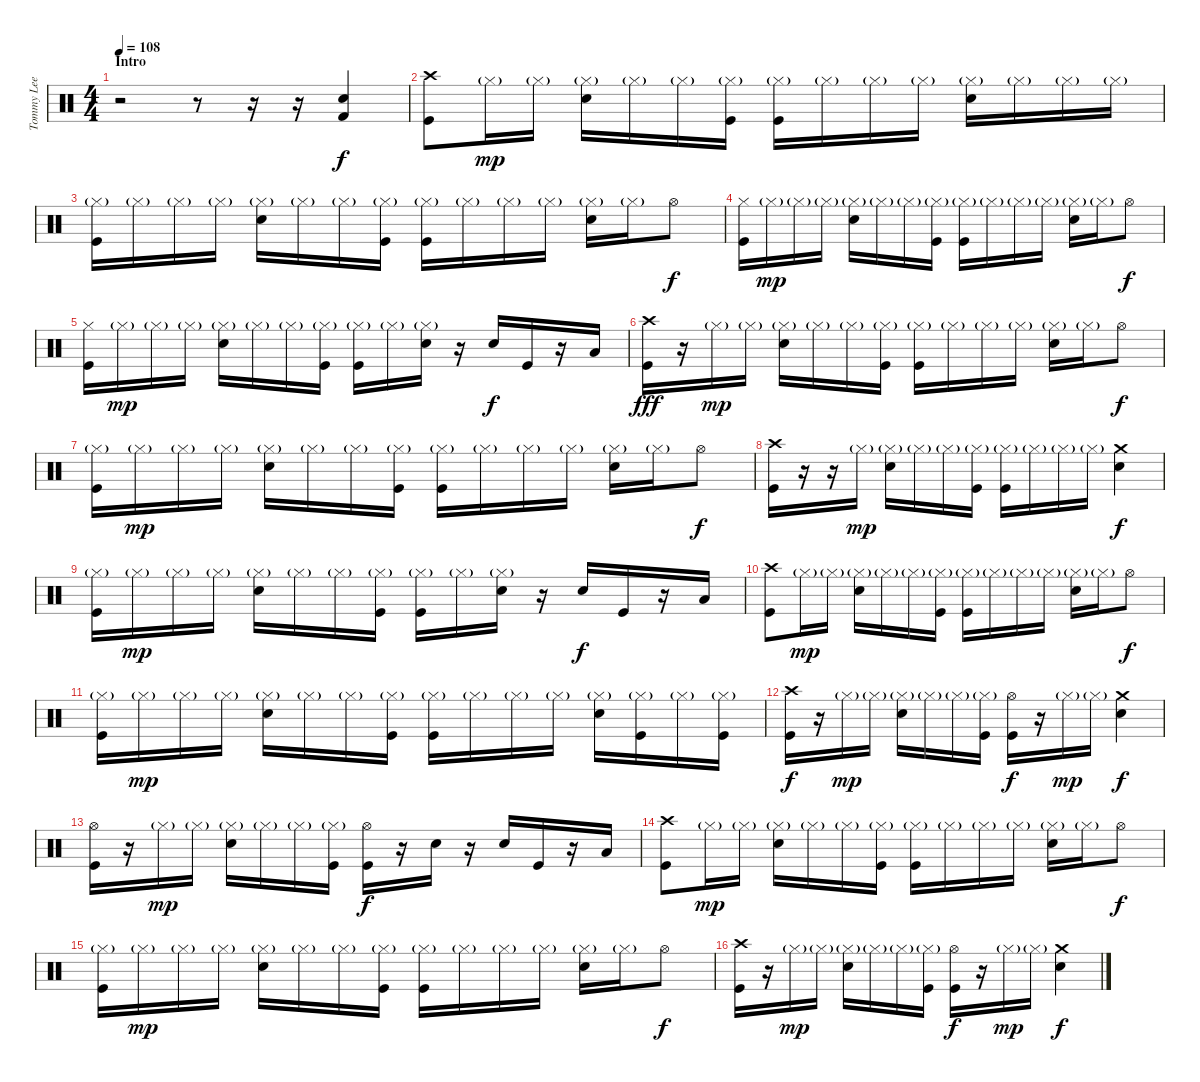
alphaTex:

\track ("Tommy Lee" "Tommy Lee") {instrument percussion}
\staff {score}
\articulation defaults
\ts (4 4)
\section ("" "Intro")
\tempo 108
\clef neutral
\ks c
r.2{dy f} r.8 r.16 r.16 ("Snare (hit) 2" "Kick (hit) 2").4 |
("Crash high (hit)" "Kick (hit)").8 "Hi-Hat (closed)"{g}.16{dy mp} "Hi-Hat (closed)"{g}.16 ("Hi-Hat (closed)"{g} "Snare (hit) 2").16 "Hi-Hat (closed)"{g}.16 "Hi-Hat (closed)"{g}.16 ("Hi-Hat (closed)"{g} "Kick (hit)").16 ("Hi-Hat (closed)"{g} "Kick (hit)").16 "Hi-Hat (closed)"{g}.16 "Hi-Hat (closed)"{g}.16 "Hi-Hat (closed)"{g}.16 ("Hi-Hat (closed)"{g} "Snare (hit) 2").16 "Hi-Hat (closed)"{g}.16 "Hi-Hat (closed)"{g}.16 "Hi-Hat (closed)"{g}.16 |
("Hi-Hat (closed)"{g} "Kick (hit)").16 "Hi-Hat (closed)"{g}.16 "Hi-Hat (closed)"{g}.16 "Hi-Hat (closed)"{g}.16 ("Hi-Hat (closed)"{g} "Snare (hit) 2").16 "Hi-Hat (closed)"{g}.16 "Hi-Hat (closed)"{g}.16 ("Hi-Hat (closed)"{g} "Kick (hit)").16 ("Hi-Hat (closed)"{g} "Kick (hit)").16 "Hi-Hat (closed)"{g}.16 "Hi-Hat (closed)"{g}.16 "Hi-Hat (closed)"{g}.16 ("Hi-Hat (closed)"{g} "Snare (hit) 2").16 "Hi-Hat (closed)"{g}.16 "Hi-Hat (open)".8{dy f} |
("Hi-Hat (closed)" "Kick (hit)").16 "Hi-Hat (closed)"{g}.16{dy mp} "Hi-Hat (closed)"{g}.16 "Hi-Hat (closed)"{g}.16 ("Hi-Hat (closed)"{g} "Snare (hit) 2").16 "Hi-Hat (closed)"{g}.16 "Hi-Hat (closed)"{g}.16 ("Hi-Hat (closed)"{g} "Kick (hit)").16 ("Hi-Hat (closed)"{g} "Kick (hit)").16 "Hi-Hat (closed)"{g}.16 "Hi-Hat (closed)"{g}.16 "Hi-Hat (closed)"{g}.16 ("Hi-Hat (closed)"{g} "Snare (hit) 2").16 "Hi-Hat (closed)"{g}.16 "Hi-Hat (open)".8{dy f} |
("Hi-Hat (closed)" "Kick (hit)").16 "Hi-Hat (closed)"{g}.16{dy mp} "Hi-Hat (closed)"{g}.16 "Hi-Hat (closed)"{g}.16 ("Hi-Hat (closed)"{g} "Snare (hit) 2").16 "Hi-Hat (closed)"{g}.16 "Hi-Hat (closed)"{g}.16 ("Hi-Hat (closed)"{g} "Kick (hit)").16 ("Hi-Hat (closed)"{g} "Kick (hit)").16 "Hi-Hat (closed)"{g}.16 ("Hi-Hat (closed)"{g} "Snare (hit) 2").16 r.16 "Snare (hit) 2".16{dy f} "Kick (hit)".16 r.16 "Low Tom (hit)".16 |
("Crash high (hit)" "Kick (hit)").16{dy fff} r.16 "Hi-Hat (closed)"{g}.16{dy mp} "Hi-Hat (closed)"{g}.16 ("Hi-Hat (closed)"{g} "Snare (hit) 2").16 "Hi-Hat (closed)"{g}.16 "Hi-Hat (closed)"{g}.16 ("Hi-Hat (closed)"{g} "Kick (hit)").16 ("Hi-Hat (closed)"{g} "Kick (hit)").16 "Hi-Hat (closed)"{g}.16 "Hi-Hat (closed)"{g}.16 "Hi-Hat (closed)"{g}.16 ("Hi-Hat (closed)"{g} "Snare (hit) 2").16 "Hi-Hat (closed)"{g}.16 "Hi-Hat (open)".8{dy f} |
("Hi-Hat (closed)"{g} "Kick (hit)").16 "Hi-Hat (closed)"{g}.16{dy mp} "Hi-Hat (closed)"{g}.16 "Hi-Hat (closed)"{g}.16 ("Hi-Hat (closed)"{g} "Snare (hit) 2").16 "Hi-Hat (closed)"{g}.16 "Hi-Hat (closed)"{g}.16 ("Hi-Hat (closed)"{g} "Kick (hit)").16 ("Hi-Hat (closed)"{g} "Kick (hit)").16 "Hi-Hat (closed)"{g}.16 "Hi-Hat (closed)"{g}.16 "Hi-Hat (closed)"{g}.16 ("Hi-Hat (closed)"{g} "Snare (hit) 2").16 "Hi-Hat (closed)"{g}.16 "Hi-Hat (open)".8{dy f} |
("Crash high (hit)" "Kick (hit)").16 r.16 r.16 "Hi-Hat (closed)"{g}.16{dy mp} ("Hi-Hat (closed)"{g} "Snare (hit) 2").16 "Hi-Hat (closed)"{g}.16 "Hi-Hat (closed)"{g}.16 ("Hi-Hat (closed)"{g} "Kick (hit)").16 ("Hi-Hat (closed)"{g} "Kick (hit)").16 "Hi-Hat (closed)"{g}.16 "Hi-Hat (closed)"{g}.16 "Hi-Hat (closed)"{g}.16 ("Crash medium (hit)" "Snare (hit) 2").4{dy f} |
("Hi-Hat (closed)"{g} "Kick (hit)").16 "Hi-Hat (closed)"{g}.16{dy mp} "Hi-Hat (closed)"{g}.16 "Hi-Hat (closed)"{g}.16 ("Hi-Hat (closed)"{g} "Snare (hit) 2").16 "Hi-Hat (closed)"{g}.16 "Hi-Hat (closed)"{g}.16 ("Hi-Hat (closed)"{g} "Kick (hit)").16 ("Hi-Hat (closed)"{g} "Kick (hit)").16 "Hi-Hat (closed)"{g}.16 ("Hi-Hat (closed)"{g} "Snare (hit) 2").16 r.16 "Snare (hit) 2".16{dy f} "Kick (hit)".16 r.16 "Low Tom (hit)".16 |
("Crash high (hit)" "Kick (hit)").8 "Hi-Hat (closed)"{g}.16{dy mp} "Hi-Hat (closed)"{g}.16 ("Hi-Hat (closed)"{g} "Snare (hit) 2").16 "Hi-Hat (closed)"{g}.16 "Hi-Hat (closed)"{g}.16 ("Hi-Hat (closed)"{g} "Kick (hit)").16 ("Hi-Hat (closed)"{g} "Kick (hit)").16 "Hi-Hat (closed)"{g}.16 "Hi-Hat (closed)"{g}.16 "Hi-Hat (closed)"{g}.16 ("Hi-Hat (closed)"{g} "Snare (hit) 2").16 "Hi-Hat (closed)"{g}.16 "Hi-Hat (open)".8{dy f} |
("Hi-Hat (closed)"{g} "Kick (hit)").16 "Hi-Hat (closed)"{g}.16{dy mp} "Hi-Hat (closed)"{g}.16 "Hi-Hat (closed)"{g}.16 ("Hi-Hat (closed)"{g} "Snare (hit) 2").16 "Hi-Hat (closed)"{g}.16 "Hi-Hat (closed)"{g}.16 ("Hi-Hat (closed)"{g} "Kick (hit)").16 ("Hi-Hat (closed)"{g} "Kick (hit)").16 "Hi-Hat (closed)"{g}.16 "Hi-Hat (closed)"{g}.16 "Hi-Hat (closed)"{g}.16 ("Hi-Hat (closed)"{g} "Snare (hit) 2").16 ("Hi-Hat (closed)"{g} "Kick (hit)").16 "Hi-Hat (closed)"{g}.16 ("Hi-Hat (closed)"{g} "Kick (hit)").16 |
("Crash high (hit)" "Kick (hit)").16{dy f} r.16 "Hi-Hat (closed)"{g}.16{dy mp} "Hi-Hat (closed)"{g}.16 ("Hi-Hat (closed)"{g} "Snare (hit) 2").16 "Hi-Hat (closed)"{g}.16 "Hi-Hat (closed)"{g}.16 ("Hi-Hat (closed)"{g} "Kick (hit)").16 ("Hi-Hat (open)" "Kick (hit)").16{dy f} r.16 "Hi-Hat (closed)"{g}.16{dy mp} "Hi-Hat (closed)"{g}.16 ("Crash medium (hit)" "Snare (hit) 2").4{dy f} |
("Hi-Hat (open)" "Kick (hit)").16 r.16 "Hi-Hat (closed)"{g}.16{dy mp} "Hi-Hat (closed)"{g}.16 ("Hi-Hat (closed)"{g} "Snare (hit) 2").16 "Hi-Hat (closed)"{g}.16 "Hi-Hat (closed)"{g}.16 ("Hi-Hat (closed)"{g} "Kick (hit)").16 ("Hi-Hat (open)" "Kick (hit)").16{dy f} r.16 "Snare (hit) 2".16 r.16 "Snare (hit) 2".16 "Kick (hit)".16 r.16 "Low Tom (hit)".16 |
("Crash high (hit)" "Kick (hit)").8 "Hi-Hat (closed)"{g}.16{dy mp} "Hi-Hat (closed)"{g}.16 ("Hi-Hat (closed)"{g} "Snare (hit) 2").16 "Hi-Hat (closed)"{g}.16 "Hi-Hat (closed)"{g}.16 ("Hi-Hat (closed)"{g} "Kick (hit)").16 ("Hi-Hat (closed)"{g} "Kick (hit)").16 "Hi-Hat (closed)"{g}.16 "Hi-Hat (closed)"{g}.16 "Hi-Hat (closed)"{g}.16 ("Hi-Hat (closed)"{g} "Snare (hit) 2").16 "Hi-Hat (closed)"{g}.16 "Hi-Hat (open)".8{dy f} |
("Hi-Hat (closed)"{g} "Kick (hit)").16 "Hi-Hat (closed)"{g}.16{dy mp} "Hi-Hat (closed)"{g}.16 "Hi-Hat (closed)"{g}.16 ("Hi-Hat (closed)"{g} "Snare (hit) 2").16 "Hi-Hat (closed)"{g}.16 "Hi-Hat (closed)"{g}.16 ("Hi-Hat (closed)"{g} "Kick (hit)").16 ("Hi-Hat (closed)"{g} "Kick (hit)").16 "Hi-Hat (closed)"{g}.16 "Hi-Hat (closed)"{g}.16 "Hi-Hat (closed)"{g}.16 ("Hi-Hat (closed)"{g} "Snare (hit) 2").16 "Hi-Hat (closed)"{g}.16 "Hi-Hat (open)".8{dy f} |
("Crash high (hit)" "Kick (hit)").16 r.16 "Hi-Hat (closed)"{g}.16{dy mp} "Hi-Hat (closed)"{g}.16 ("Hi-Hat (closed)"{g} "Snare (hit) 2").16 "Hi-Hat (closed)"{g}.16 "Hi-Hat (closed)"{g}.16 ("Hi-Hat (closed)"{g} "Kick (hit)").16 ("Hi-Hat (open)" "Kick (hit)").16{dy f} r.16 "Hi-Hat (closed)"{g}.16{dy mp} "Hi-Hat (closed)"{g}.16 ("Crash medium (hit)" "Snare (hit) 2").4{dy f}
